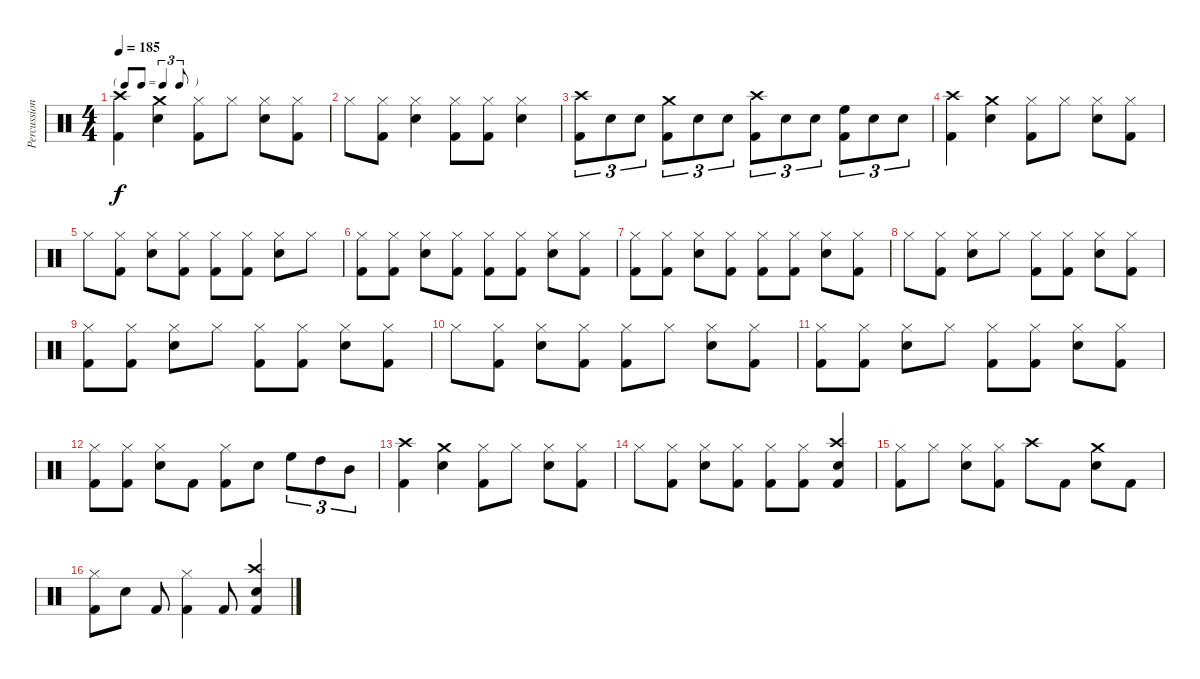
\track ("Percussion" "Percussion") {instrument percussion}
\staff {score}
\articulation defaults
\ts (4 4)
\tf triplet8th
\tempo 185
\clef neutral
\ks c
("Kick (hit) 2" "Crash high (hit)").4{dy f} ("Snare (hit) 2" "Crash medium (hit)").4 ("Kick (hit) 2" "Hi-Hat (closed)").8 "Hi-Hat (closed)".8 ("Snare (hit) 2" "Hi-Hat (closed)").8 ("Kick (hit) 2" "Hi-Hat (closed)").8 |
"Hi-Hat (closed)".8 ("Kick (hit) 2" "Hi-Hat (closed)").8 ("Snare (hit) 2" "Hi-Hat (closed)").4 ("Kick (hit) 2" "Hi-Hat (closed)").8 ("Kick (hit) 2" "Hi-Hat (closed)").8 ("Snare (hit) 2" "Hi-Hat (closed)").4 |
("Kick (hit) 2" "Crash high (hit)").8{tu (3 2)} "Snare (hit) 2".8{tu (3 2)} "Snare (hit) 2".8{tu (3 2)} ("Kick (hit) 2" "Crash medium (hit)").8{tu (3 2)} "Snare (hit) 2".8{tu (3 2)} "Snare (hit) 2".8{tu (3 2)} ("Kick (hit) 2" "Crash high (hit)").8{tu (3 2)} "Snare (hit) 2".8{tu (3 2)} "Snare (hit) 2".8{tu (3 2)} ("Kick (hit) 2" "High Floor Tom (hit)").8{tu (3 2)} "Snare (hit) 2".8{tu (3 2)} "Snare (hit) 2".8{tu (3 2)} |
("Kick (hit) 2" "Crash high (hit)").4 ("Snare (hit) 2" "Crash medium (hit)").4 ("Kick (hit) 2" "Hi-Hat (closed)").8 "Hi-Hat (closed)".8 ("Snare (hit) 2" "Hi-Hat (closed)").8 ("Kick (hit) 2" "Hi-Hat (closed)").8 |
"Hi-Hat (closed)".8 ("Kick (hit) 2" "Hi-Hat (closed)").8 ("Snare (hit) 2" "Hi-Hat (closed)").8 ("Kick (hit) 2" "Hi-Hat (closed)").8 ("Kick (hit) 2" "Hi-Hat (closed)").8 ("Kick (hit) 2" "Hi-Hat (closed)").8 ("Snare (hit) 2" "Hi-Hat (closed)").8 "Hi-Hat (closed)".8 |
("Kick (hit) 2" "Hi-Hat (closed)").8 ("Kick (hit) 2" "Hi-Hat (closed)").8 ("Snare (hit) 2" "Hi-Hat (closed)").8 ("Kick (hit) 2" "Hi-Hat (closed)").8 ("Kick (hit) 2" "Hi-Hat (closed)").8 ("Kick (hit) 2" "Hi-Hat (closed)").8 ("Snare (hit) 2" "Hi-Hat (closed)").8 ("Kick (hit) 2" "Hi-Hat (closed)").8 |
("Kick (hit) 2" "Hi-Hat (closed)").8 ("Kick (hit) 2" "Hi-Hat (closed)").8 ("Snare (hit) 2" "Hi-Hat (closed)").8 ("Kick (hit) 2" "Hi-Hat (closed)").8 ("Kick (hit) 2" "Hi-Hat (closed)").8 ("Kick (hit) 2" "Hi-Hat (closed)").8 ("Snare (hit) 2" "Hi-Hat (closed)").8 ("Kick (hit) 2" "Hi-Hat (closed)").8 |
"Hi-Hat (closed)".8 ("Kick (hit) 2" "Hi-Hat (closed)").8 ("Snare (hit) 2" "Hi-Hat (closed)").8 "Hi-Hat (closed)".8 ("Kick (hit) 2" "Hi-Hat (closed)").8 ("Kick (hit) 2" "Hi-Hat (closed)").8 ("Snare (hit) 2" "Hi-Hat (closed)").8 ("Kick (hit) 2" "Hi-Hat (closed)").8 |
("Kick (hit) 2" "Hi-Hat (closed)").8 ("Kick (hit) 2" "Hi-Hat (closed)").8 ("Snare (hit) 2" "Hi-Hat (closed)").8 "Hi-Hat (closed)".8 ("Kick (hit) 2" "Hi-Hat (closed)").8 ("Kick (hit) 2" "Hi-Hat (closed)").8 ("Snare (hit) 2" "Hi-Hat (closed)").8 ("Kick (hit) 2" "Hi-Hat (closed)").8 |
"Hi-Hat (closed)".8 ("Kick (hit) 2" "Hi-Hat (closed)").8 ("Snare (hit) 2" "Hi-Hat (closed)").8 ("Kick (hit) 2" "Hi-Hat (closed)").8 ("Kick (hit) 2" "Hi-Hat (closed)").8 "Hi-Hat (closed)".8 ("Snare (hit) 2" "Hi-Hat (closed)").8 ("Kick (hit) 2" "Hi-Hat (closed)").8 |
("Kick (hit) 2" "Hi-Hat (closed)").8 ("Kick (hit) 2" "Hi-Hat (closed)").8 ("Snare (hit) 2" "Hi-Hat (closed)").8 "Hi-Hat (closed)".8 ("Kick (hit) 2" "Hi-Hat (closed)").8 ("Kick (hit) 2" "Hi-Hat (closed)").8 ("Snare (hit) 2" "Hi-Hat (closed)").8 ("Kick (hit) 2" "Hi-Hat (closed)").8 |
("Kick (hit) 2" "Hi-Hat (closed)").8 ("Kick (hit) 2" "Hi-Hat (closed)").8 ("Snare (hit) 2" "Hi-Hat (closed)").8 "Kick (hit) 2".8 ("Kick (hit) 2" "Hi-Hat (closed)").8 "Snare (hit) 2".8 "High Floor Tom (hit)".8{tu (3 2)} "High Tom (hit)".8{tu (3 2)} "Mid Tom (hit)".8{tu (3 2)} |
("Kick (hit) 2" "Crash high (hit)").4 ("Snare (hit) 2" "Crash medium (hit)").4 ("Kick (hit) 2" "Hi-Hat (closed)").8 "Hi-Hat (closed)".8 ("Snare (hit) 2" "Hi-Hat (closed)").8 ("Kick (hit) 2" "Hi-Hat (closed)").8 |
"Hi-Hat (closed)".8 ("Kick (hit) 2" "Hi-Hat (closed)").8 ("Snare (hit) 2" "Hi-Hat (closed)").8 ("Kick (hit) 2" "Hi-Hat (closed)").8 ("Kick (hit) 2" "Hi-Hat (closed)").8 ("Kick (hit) 2" "Hi-Hat (closed)").8 ("Kick (hit) 2" "Snare (hit) 2" "Crash high (hit)").4 |
("Kick (hit) 2" "Hi-Hat (closed)").8 "Hi-Hat (closed)".8 ("Snare (hit) 2" "Hi-Hat (closed)").8 ("Kick (hit) 2" "Hi-Hat (closed)").8 "Crash high (hit)".8 "Kick (hit) 2".8 ("Snare (hit) 2" "Crash medium (hit)").8 "Kick (hit) 2".8 |
("Kick (hit) 2" "Hi-Hat (closed)").8 "Snare (hit) 2".8 "Kick (hit) 2".8 ("Kick (hit) 2" "Hi-Hat (closed)").4 "Kick (hit) 2".8 ("Kick (hit) 2" "Snare (hit) 2" "Crash high (hit)").4
